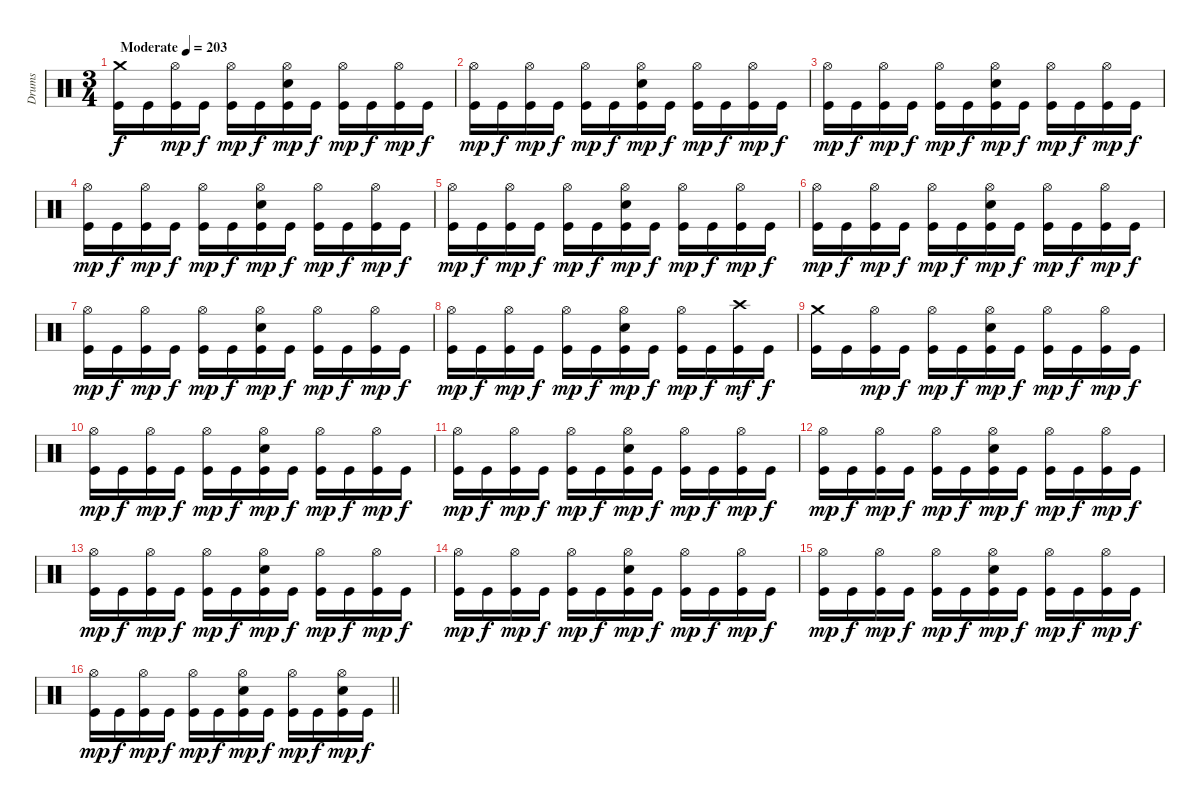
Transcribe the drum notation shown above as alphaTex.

\track ("Drums" "Drums") {instrument percussion}
\staff {score}
\articulation defaults
\ts (3 4)
\tempo (203 "Moderate")
\clef neutral
\ks c
("Crash medium (hit)" "Kick (hit)").16{dy f} "Kick (hit)".16 ("Hi-Hat (open)" "Kick (hit)").16{dy mp} "Kick (hit)".16{dy f} ("Hi-Hat (open)" "Kick (hit)").16{dy mp} "Kick (hit)".16{dy f} ("Hi-Hat (open)" "Electric Snare (hit)" "Kick (hit)").16{dy mp} "Kick (hit)".16{dy f} ("Hi-Hat (open)" "Kick (hit)").16{dy mp} "Kick (hit)".16{dy f} ("Hi-Hat (open)" "Kick (hit)").16{dy mp} "Kick (hit)".16{dy f} |
("Hi-Hat (open)" "Kick (hit)").16{dy mp} "Kick (hit)".16{dy f} ("Hi-Hat (open)" "Kick (hit)").16{dy mp} "Kick (hit)".16{dy f} ("Hi-Hat (open)" "Kick (hit)").16{dy mp} "Kick (hit)".16{dy f} ("Hi-Hat (open)" "Electric Snare (hit)" "Kick (hit)").16{dy mp} "Kick (hit)".16{dy f} ("Hi-Hat (open)" "Kick (hit)").16{dy mp} "Kick (hit)".16{dy f} ("Hi-Hat (open)" "Kick (hit)").16{dy mp} "Kick (hit)".16{dy f} |
("Hi-Hat (open)" "Kick (hit)").16{dy mp} "Kick (hit)".16{dy f} ("Hi-Hat (open)" "Kick (hit)").16{dy mp} "Kick (hit)".16{dy f} ("Hi-Hat (open)" "Kick (hit)").16{dy mp} "Kick (hit)".16{dy f} ("Hi-Hat (open)" "Electric Snare (hit)" "Kick (hit)").16{dy mp} "Kick (hit)".16{dy f} ("Hi-Hat (open)" "Kick (hit)").16{dy mp} "Kick (hit)".16{dy f} ("Hi-Hat (open)" "Kick (hit)").16{dy mp} "Kick (hit)".16{dy f} |
("Hi-Hat (open)" "Kick (hit)").16{dy mp} "Kick (hit)".16{dy f} ("Hi-Hat (open)" "Kick (hit)").16{dy mp} "Kick (hit)".16{dy f} ("Hi-Hat (open)" "Kick (hit)").16{dy mp} "Kick (hit)".16{dy f} ("Hi-Hat (open)" "Electric Snare (hit)" "Kick (hit)").16{dy mp} "Kick (hit)".16{dy f} ("Hi-Hat (open)" "Kick (hit)").16{dy mp} "Kick (hit)".16{dy f} ("Hi-Hat (open)" "Kick (hit)").16{dy mp} "Kick (hit)".16{dy f} |
("Hi-Hat (open)" "Kick (hit)").16{dy mp} "Kick (hit)".16{dy f} ("Hi-Hat (open)" "Kick (hit)").16{dy mp} "Kick (hit)".16{dy f} ("Hi-Hat (open)" "Kick (hit)").16{dy mp} "Kick (hit)".16{dy f} ("Hi-Hat (open)" "Electric Snare (hit)" "Kick (hit)").16{dy mp} "Kick (hit)".16{dy f} ("Hi-Hat (open)" "Kick (hit)").16{dy mp} "Kick (hit)".16{dy f} ("Hi-Hat (open)" "Kick (hit)").16{dy mp} "Kick (hit)".16{dy f} |
("Hi-Hat (open)" "Kick (hit)").16{dy mp} "Kick (hit)".16{dy f} ("Hi-Hat (open)" "Kick (hit)").16{dy mp} "Kick (hit)".16{dy f} ("Hi-Hat (open)" "Kick (hit)").16{dy mp} "Kick (hit)".16{dy f} ("Hi-Hat (open)" "Electric Snare (hit)" "Kick (hit)").16{dy mp} "Kick (hit)".16{dy f} ("Hi-Hat (open)" "Kick (hit)").16{dy mp} "Kick (hit)".16{dy f} ("Hi-Hat (open)" "Kick (hit)").16{dy mp} "Kick (hit)".16{dy f} |
("Hi-Hat (open)" "Kick (hit)").16{dy mp} "Kick (hit)".16{dy f} ("Hi-Hat (open)" "Kick (hit)").16{dy mp} "Kick (hit)".16{dy f} ("Hi-Hat (open)" "Kick (hit)").16{dy mp} "Kick (hit)".16{dy f} ("Hi-Hat (open)" "Electric Snare (hit)" "Kick (hit)").16{dy mp} "Kick (hit)".16{dy f} ("Hi-Hat (open)" "Kick (hit)").16{dy mp} "Kick (hit)".16{dy f} ("Hi-Hat (open)" "Kick (hit)").16{dy mp} "Kick (hit)".16{dy f} |
("Hi-Hat (open)" "Kick (hit)").16{dy mp} "Kick (hit)".16{dy f} ("Hi-Hat (open)" "Kick (hit)").16{dy mp} "Kick (hit)".16{dy f} ("Hi-Hat (open)" "Kick (hit)").16{dy mp} "Kick (hit)".16{dy f} ("Hi-Hat (open)" "Electric Snare (hit)" "Kick (hit)").16{dy mp} "Kick (hit)".16{dy f} ("Hi-Hat (open)" "Kick (hit)").16{dy mp} "Kick (hit)".16{dy f} ("Crash high (hit)" "Kick (hit)").16{dy mf} "Kick (hit)".16{dy f} |
("Crash medium (hit)" "Kick (hit)").16 "Kick (hit)".16 ("Hi-Hat (open)" "Kick (hit)").16{dy mp} "Kick (hit)".16{dy f} ("Hi-Hat (open)" "Kick (hit)").16{dy mp} "Kick (hit)".16{dy f} ("Hi-Hat (open)" "Electric Snare (hit)" "Kick (hit)").16{dy mp} "Kick (hit)".16{dy f} ("Hi-Hat (open)" "Kick (hit)").16{dy mp} "Kick (hit)".16{dy f} ("Hi-Hat (open)" "Kick (hit)").16{dy mp} "Kick (hit)".16{dy f} |
("Hi-Hat (open)" "Kick (hit)").16{dy mp} "Kick (hit)".16{dy f} ("Hi-Hat (open)" "Kick (hit)").16{dy mp} "Kick (hit)".16{dy f} ("Hi-Hat (open)" "Kick (hit)").16{dy mp} "Kick (hit)".16{dy f} ("Hi-Hat (open)" "Electric Snare (hit)" "Kick (hit)").16{dy mp} "Kick (hit)".16{dy f} ("Hi-Hat (open)" "Kick (hit)").16{dy mp} "Kick (hit)".16{dy f} ("Hi-Hat (open)" "Kick (hit)").16{dy mp} "Kick (hit)".16{dy f} |
("Hi-Hat (open)" "Kick (hit)").16{dy mp} "Kick (hit)".16{dy f} ("Hi-Hat (open)" "Kick (hit)").16{dy mp} "Kick (hit)".16{dy f} ("Hi-Hat (open)" "Kick (hit)").16{dy mp} "Kick (hit)".16{dy f} ("Hi-Hat (open)" "Electric Snare (hit)" "Kick (hit)").16{dy mp} "Kick (hit)".16{dy f} ("Hi-Hat (open)" "Kick (hit)").16{dy mp} "Kick (hit)".16{dy f} ("Hi-Hat (open)" "Kick (hit)").16{dy mp} "Kick (hit)".16{dy f} |
("Hi-Hat (open)" "Kick (hit)").16{dy mp} "Kick (hit)".16{dy f} ("Hi-Hat (open)" "Kick (hit)").16{dy mp} "Kick (hit)".16{dy f} ("Hi-Hat (open)" "Kick (hit)").16{dy mp} "Kick (hit)".16{dy f} ("Hi-Hat (open)" "Electric Snare (hit)" "Kick (hit)").16{dy mp} "Kick (hit)".16{dy f} ("Hi-Hat (open)" "Kick (hit)").16{dy mp} "Kick (hit)".16{dy f} ("Hi-Hat (open)" "Kick (hit)").16{dy mp} "Kick (hit)".16{dy f} |
("Hi-Hat (open)" "Kick (hit)").16{dy mp} "Kick (hit)".16{dy f} ("Hi-Hat (open)" "Kick (hit)").16{dy mp} "Kick (hit)".16{dy f} ("Hi-Hat (open)" "Kick (hit)").16{dy mp} "Kick (hit)".16{dy f} ("Hi-Hat (open)" "Electric Snare (hit)" "Kick (hit)").16{dy mp} "Kick (hit)".16{dy f} ("Hi-Hat (open)" "Kick (hit)").16{dy mp} "Kick (hit)".16{dy f} ("Hi-Hat (open)" "Kick (hit)").16{dy mp} "Kick (hit)".16{dy f} |
("Hi-Hat (open)" "Kick (hit)").16{dy mp} "Kick (hit)".16{dy f} ("Hi-Hat (open)" "Kick (hit)").16{dy mp} "Kick (hit)".16{dy f} ("Hi-Hat (open)" "Kick (hit)").16{dy mp} "Kick (hit)".16{dy f} ("Hi-Hat (open)" "Electric Snare (hit)" "Kick (hit)").16{dy mp} "Kick (hit)".16{dy f} ("Hi-Hat (open)" "Kick (hit)").16{dy mp} "Kick (hit)".16{dy f} ("Hi-Hat (open)" "Kick (hit)").16{dy mp} "Kick (hit)".16{dy f} |
("Hi-Hat (open)" "Kick (hit)").16{dy mp} "Kick (hit)".16{dy f} ("Hi-Hat (open)" "Kick (hit)").16{dy mp} "Kick (hit)".16{dy f} ("Hi-Hat (open)" "Kick (hit)").16{dy mp} "Kick (hit)".16{dy f} ("Hi-Hat (open)" "Electric Snare (hit)" "Kick (hit)").16{dy mp} "Kick (hit)".16{dy f} ("Hi-Hat (open)" "Kick (hit)").16{dy mp} "Kick (hit)".16{dy f} ("Hi-Hat (open)" "Kick (hit)").16{dy mp} "Kick (hit)".16{dy f} |
\barLineRight lightlight
("Hi-Hat (open)" "Kick (hit)").16{dy mp} "Kick (hit)".16{dy f} ("Hi-Hat (open)" "Kick (hit)").16{dy mp} "Kick (hit)".16{dy f} ("Hi-Hat (open)" "Kick (hit)").16{dy mp} "Kick (hit)".16{dy f} ("Hi-Hat (open)" "Electric Snare (hit)" "Kick (hit)").16{dy mp} "Kick (hit)".16{dy f} ("Hi-Hat (open)" "Kick (hit)").16{dy mp} "Kick (hit)".16{dy f} ("Hi-Hat (open)" "Electric Snare (hit)" "Kick (hit)").16{dy mp} "Kick (hit)".16{dy f}
